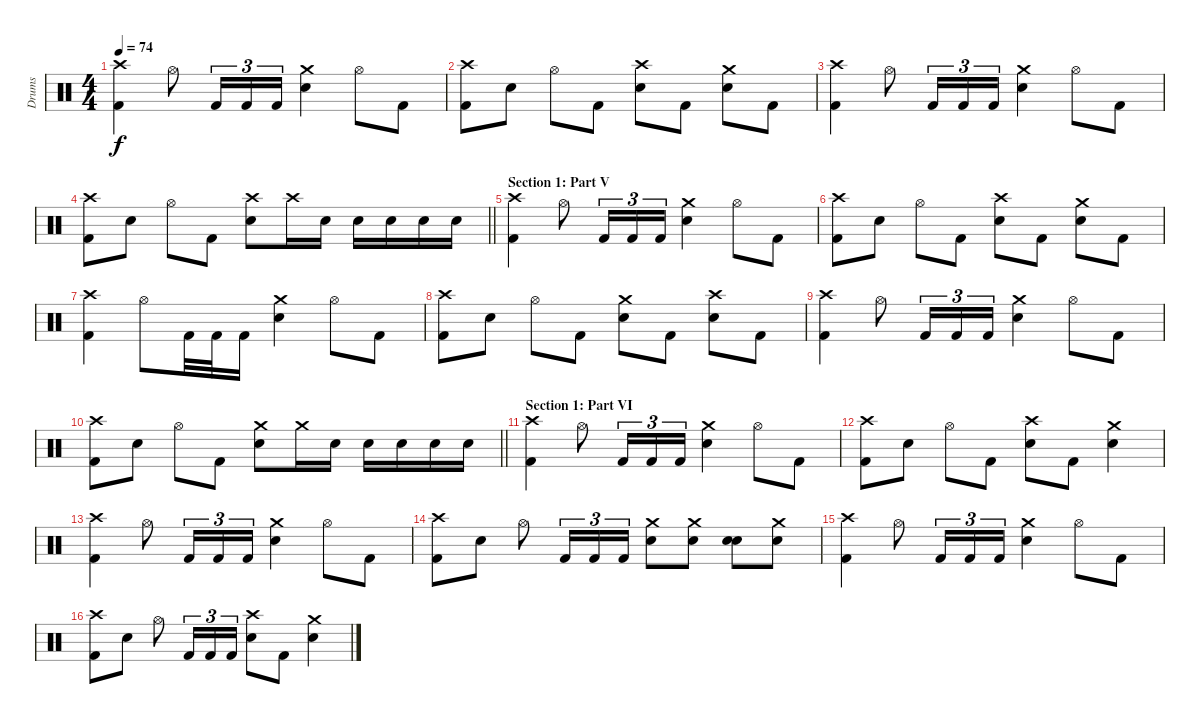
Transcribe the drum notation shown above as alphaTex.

\track ("Drums" "Drums") {instrument percussion}
\staff {score}
\articulation defaults
\ts (4 4)
\tempo 74
\clef neutral
\ks c
("Crash high (hit)" "Kick (hit) 2").4{dy f} "Hi-Hat (open)".8 "Kick (hit) 2".16{tu (3 2)} "Kick (hit) 2".16{tu (3 2)} "Kick (hit) 2".16{tu (3 2)} ("Crash medium (hit)" "Electric Snare (hit)").4 "Hi-Hat (open)".8 "Kick (hit) 2".8 |
("Crash high (hit)" "Kick (hit) 2").8 "Electric Snare (hit)".8 "Hi-Hat (open)".8 "Kick (hit) 2".8 ("Crash high (hit)" "Electric Snare (hit)").8 "Kick (hit) 2".8 ("Crash medium (hit)" "Electric Snare (hit)").8 "Kick (hit) 2".8 |
("Crash high (hit)" "Kick (hit) 2").4 "Hi-Hat (open)".8 "Kick (hit) 2".16{tu (3 2)} "Kick (hit) 2".16{tu (3 2)} "Kick (hit) 2".16{tu (3 2)} ("Crash medium (hit)" "Electric Snare (hit)").4 "Hi-Hat (open)".8 "Kick (hit) 2".8 |
\barLineRight lightlight
("Crash high (hit)" "Kick (hit) 2").8 "Electric Snare (hit)".8 "Hi-Hat (open)".8 "Kick (hit) 2".8 ("Crash high (hit)" "Electric Snare (hit)").8 "Crash high (hit)".16 "Electric Snare (hit)".16 "Electric Snare (hit)".16 "Electric Snare (hit)".16 "Electric Snare (hit)".16 "Electric Snare (hit)".16 |
\section ("" "Section 1: Part V")
("Crash high (hit)" "Kick (hit) 2").4 "Hi-Hat (open)".8 "Kick (hit) 2".16{tu (3 2)} "Kick (hit) 2".16{tu (3 2)} "Kick (hit) 2".16{tu (3 2)} ("Crash medium (hit)" "Electric Snare (hit)").4 "Hi-Hat (open)".8 "Kick (hit) 2".8 |
("Crash high (hit)" "Kick (hit) 2").8 "Electric Snare (hit)".8 "Hi-Hat (open)".8 "Kick (hit) 2".8 ("Crash high (hit)" "Electric Snare (hit)").8 "Kick (hit) 2".8 ("Crash medium (hit)" "Electric Snare (hit)").8 "Kick (hit) 2".8 |
("Crash high (hit)" "Kick (hit) 2").4 "Hi-Hat (open)".8 "Kick (hit) 2".32 "Kick (hit) 2".32 "Kick (hit) 2".16 ("Crash medium (hit)" "Electric Snare (hit)").4 "Hi-Hat (open)".8 "Kick (hit) 2".8 |
("Crash high (hit)" "Kick (hit) 2").8 "Electric Snare (hit)".8 "Hi-Hat (open)".8 "Kick (hit) 2".8 ("Crash medium (hit)" "Electric Snare (hit)").8 "Kick (hit) 2".8 ("Crash high (hit)" "Electric Snare (hit)").8 "Kick (hit) 2".8 |
("Crash high (hit)" "Kick (hit) 2").4 "Hi-Hat (open)".8 "Kick (hit) 2".16{tu (3 2)} "Kick (hit) 2".16{tu (3 2)} "Kick (hit) 2".16{tu (3 2)} ("Crash medium (hit)" "Electric Snare (hit)").4 "Hi-Hat (open)".8 "Kick (hit) 2".8 |
\barLineRight lightlight
("Crash high (hit)" "Kick (hit) 2").8 "Electric Snare (hit)".8 "Hi-Hat (open)".8 "Kick (hit) 2".8 ("Crash medium (hit)" "Electric Snare (hit)").8 "Crash medium (hit)".16 "Electric Snare (hit)".16 "Electric Snare (hit)".16 "Electric Snare (hit)".16 "Electric Snare (hit)".16 "Electric Snare (hit)".16 |
\section ("" "Section 1: Part VI")
("Crash high (hit)" "Kick (hit) 2").4 "Hi-Hat (open)".8 "Kick (hit) 2".16{tu (3 2)} "Kick (hit) 2".16{tu (3 2)} "Kick (hit) 2".16{tu (3 2)} ("Crash medium (hit)" "Electric Snare (hit)").4 "Hi-Hat (open)".8 "Kick (hit) 2".8 |
("Crash high (hit)" "Kick (hit) 2").8 "Electric Snare (hit)".8 "Hi-Hat (open)".8 "Kick (hit) 2".8 ("Crash high (hit)" "Electric Snare (hit)").8 "Kick (hit) 2".8 ("Crash medium (hit)" "Electric Snare (hit)").4 |
("Crash high (hit)" "Kick (hit) 2").4 "Hi-Hat (open)".8 "Kick (hit) 2".16{tu (3 2)} "Kick (hit) 2".16{tu (3 2)} "Kick (hit) 2".16{tu (3 2)} ("Crash medium (hit)" "Electric Snare (hit)").4 "Hi-Hat (open)".8 "Kick (hit) 2".8 |
("Crash high (hit)" "Kick (hit) 2").8 "Electric Snare (hit)".8 "Hi-Hat (open)".8 "Kick (hit) 2".16{tu (3 2)} "Kick (hit) 2".16{tu (3 2)} "Kick (hit) 2".16{tu (3 2)} ("Crash medium (hit)" "Electric Snare (hit)").8 ("Crash medium (hit)" "Electric Snare (hit)").8 ("Electric Snare (hit)" "Electric Snare (hit)").8{bu 60} ("Crash medium (hit)" "Electric Snare (hit)").8 |
("Crash high (hit)" "Kick (hit) 2").4 "Hi-Hat (open)".8 "Kick (hit) 2".16{tu (3 2)} "Kick (hit) 2".16{tu (3 2)} "Kick (hit) 2".16{tu (3 2)} ("Crash medium (hit)" "Electric Snare (hit)").4 "Hi-Hat (open)".8 "Kick (hit) 2".8 |
("Crash high (hit)" "Kick (hit) 2").8 "Electric Snare (hit)".8 "Hi-Hat (open)".8 "Kick (hit) 2".16{tu (3 2)} "Kick (hit) 2".16{tu (3 2)} "Kick (hit) 2".16{tu (3 2)} ("Crash high (hit)" "Electric Snare (hit)").8 "Kick (hit) 2".8 ("Crash medium (hit)" "Electric Snare (hit)").4
